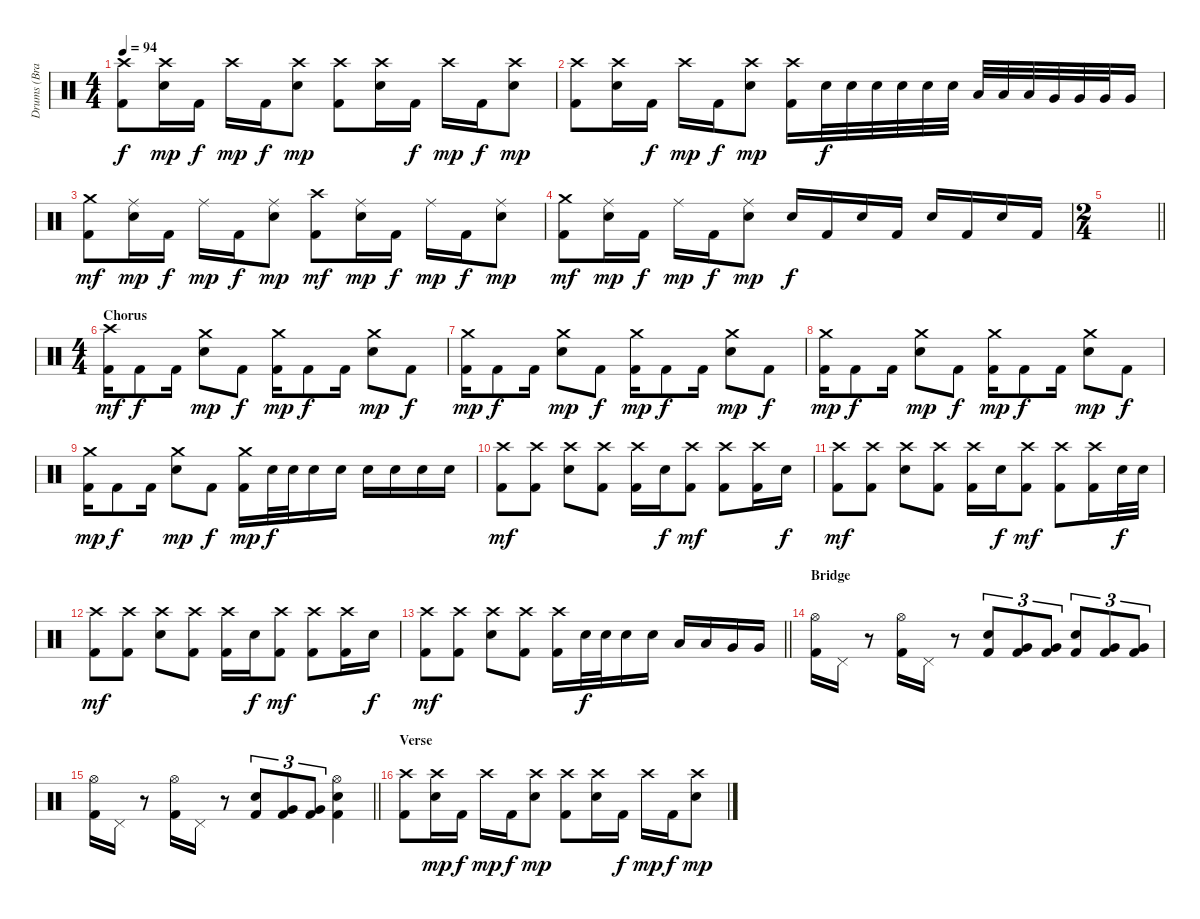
\track ("Drums (Brandon Saller)" "Drums (Bra") {instrument percussion}
\staff {score}
\articulation defaults
\ts (4 4)
\tempo 94
\clef neutral
\ks c
("Crash high (hit)" "Kick (hit) 2").8{dy f} ("Crash high (hit)" "Electric Snare (hit)").16{dy mp} "Kick (hit) 2".16{dy f} "Crash high (hit)".16{dy mp} "Kick (hit) 2".16{dy f} ("Crash high (hit)" "Electric Snare (hit)").8{dy mp} ("Crash high (hit)" "Kick (hit) 2").8 ("Crash high (hit)" "Electric Snare (hit)").16 "Kick (hit) 2".16{dy f} "Crash high (hit)".16{dy mp} "Kick (hit) 2".16{dy f} ("Crash high (hit)" "Electric Snare (hit)").8{dy mp} |
("Crash high (hit)" "Kick (hit) 2").8 ("Crash high (hit)" "Electric Snare (hit)").16 "Kick (hit) 2".16{dy f} "Crash high (hit)".16{dy mp} "Kick (hit) 2".16{dy f} ("Crash high (hit)" "Electric Snare (hit)").8{dy mp} ("Crash high (hit)" "Kick (hit) 2").16 "Electric Snare (hit)".32{dy f} "Electric Snare (hit)".32 "Electric Snare (hit)".32 "Electric Snare (hit)".32 "Electric Snare (hit)".32 "Electric Snare (hit)".32 "Low Tom (hit)".32 "Low Tom (hit)".32 "Low Tom (hit)".32 "Very Low Tom (hit)".32 "Very Low Tom (hit)".32 "Very Low Tom (hit)".32 "Very Low Tom (hit)".16 |
("Crash medium (hit)" "Kick (hit) 2").8{dy mf} ("Ride (middle)" "Electric Snare (hit)").16{dy mp} "Kick (hit) 2".16{dy f} "Ride (middle)".16{dy mp} "Kick (hit) 2".16{dy f} ("Ride (middle)" "Electric Snare (hit)").8{dy mp} ("Crash high (hit)" "Kick (hit) 2").8{dy mf} ("Ride (middle)" "Electric Snare (hit)").16{dy mp} "Kick (hit) 2".16{dy f} "Ride (middle)".16{dy mp} "Kick (hit) 2".16{dy f} ("Ride (middle)" "Electric Snare (hit)").8{dy mp} |
("Crash medium (hit)" "Kick (hit) 2").8{dy mf} ("Ride (middle)" "Electric Snare (hit)").16{dy mp} "Kick (hit) 2".16{dy f} "Ride (middle)".16{dy mp} "Kick (hit) 2".16{dy f} ("Ride (middle)" "Electric Snare (hit)").8{dy mp} "Electric Snare (hit)".16{dy f} "Kick (hit) 2".16 "Electric Snare (hit)".16 "Kick (hit) 2".16 "Electric Snare (hit)".16 "Kick (hit) 2".16 "Electric Snare (hit)".16 "Kick (hit) 2".16 |
\ts (2 4)
\barLineRight lightlight
|
\ts (4 4)
\section ("" "Chorus")
("Crash high (hit)" "Kick (hit) 2").16{dy mf} "Kick (hit) 2".8{dy f} "Kick (hit) 2".16 ("Crash medium (hit)" "Electric Snare (hit)").8{dy mp} "Kick (hit) 2".8{dy f} ("Crash medium (hit)" "Kick (hit) 2").16{dy mp} "Kick (hit) 2".8{dy f} "Kick (hit) 2".16 ("Crash medium (hit)" "Electric Snare (hit)").8{dy mp} "Kick (hit) 2".8{dy f} |
("Crash medium (hit)" "Kick (hit) 2").16{dy mp} "Kick (hit) 2".8{dy f} "Kick (hit) 2".16 ("Crash medium (hit)" "Electric Snare (hit)").8{dy mp} "Kick (hit) 2".8{dy f} ("Crash medium (hit)" "Kick (hit) 2").16{dy mp} "Kick (hit) 2".8{dy f} "Kick (hit) 2".16 ("Crash medium (hit)" "Electric Snare (hit)").8{dy mp} "Kick (hit) 2".8{dy f} |
("Crash medium (hit)" "Kick (hit) 2").16{dy mp} "Kick (hit) 2".8{dy f} "Kick (hit) 2".16 ("Crash medium (hit)" "Electric Snare (hit)").8{dy mp} "Kick (hit) 2".8{dy f} ("Crash medium (hit)" "Kick (hit) 2").16{dy mp} "Kick (hit) 2".8{dy f} "Kick (hit) 2".16 ("Crash medium (hit)" "Electric Snare (hit)").8{dy mp} "Kick (hit) 2".8{dy f} |
("Crash medium (hit)" "Kick (hit) 2").16{dy mp} "Kick (hit) 2".8{dy f} "Kick (hit) 2".16 ("Crash medium (hit)" "Electric Snare (hit)").8{dy mp} "Kick (hit) 2".8{dy f} ("Crash medium (hit)" "Kick (hit) 2").16{dy mp} "Electric Snare (hit)".32{dy f} "Electric Snare (hit)".32 "Electric Snare (hit)".16 "Electric Snare (hit)".16 "Electric Snare (hit)".16 "Electric Snare (hit)".16 "Electric Snare (hit)".16 "Electric Snare (hit)".16 |
("Crash high (hit)" "Kick (hit) 2").8{dy mf} ("Crash high (hit)" "Kick (hit) 2").8 ("Crash high (hit)" "Electric Snare (hit)").8 ("Crash high (hit)" "Kick (hit) 2").8 ("Crash high (hit)" "Kick (hit) 2").16 "Electric Snare (hit)".16{dy f} ("Crash high (hit)" "Kick (hit) 2").8{dy mf} ("Crash high (hit)" "Kick (hit) 2").8 ("Crash high (hit)" "Kick (hit) 2").16 "Electric Snare (hit)".16{dy f} |
("Crash high (hit)" "Kick (hit) 2").8{dy mf} ("Crash high (hit)" "Kick (hit) 2").8 ("Crash high (hit)" "Electric Snare (hit)").8 ("Crash high (hit)" "Kick (hit) 2").8 ("Crash high (hit)" "Kick (hit) 2").16 "Electric Snare (hit)".16{dy f} ("Crash high (hit)" "Kick (hit) 2").8{dy mf} ("Crash high (hit)" "Kick (hit) 2").8 ("Crash high (hit)" "Kick (hit) 2").16 "Electric Snare (hit)".32{dy f} "Electric Snare (hit)".32 |
("Crash high (hit)" "Kick (hit) 2").8{dy mf} ("Crash high (hit)" "Kick (hit) 2").8 ("Crash high (hit)" "Electric Snare (hit)").8 ("Crash high (hit)" "Kick (hit) 2").8 ("Crash high (hit)" "Kick (hit) 2").16 "Electric Snare (hit)".16{dy f} ("Crash high (hit)" "Kick (hit) 2").8{dy mf} ("Crash high (hit)" "Kick (hit) 2").8 ("Crash high (hit)" "Kick (hit) 2").16 "Electric Snare (hit)".16{dy f} |
\barLineRight lightlight
("Crash high (hit)" "Kick (hit) 2").8{dy mf} ("Crash high (hit)" "Kick (hit) 2").8 ("Crash high (hit)" "Electric Snare (hit)").8 ("Crash high (hit)" "Kick (hit) 2").8 ("Crash high (hit)" "Kick (hit) 2").16 "Electric Snare (hit)".32{dy f} "Electric Snare (hit)".32 "Electric Snare (hit)".16 "Electric Snare (hit)".16 "Low Tom (hit)".16 "Low Tom (hit)".16 "Very Low Tom (hit)".16 "Very Low Tom (hit)".16 |
\section ("" "Bridge")
("Hi-Hat (open)" "Kick (hit) 2").16 "Pedal Hi-Hat (hit)".16 r.8 ("Hi-Hat (open)" "Kick (hit) 2").16 "Pedal Hi-Hat (hit)".16 r.8 ("Electric Snare (hit)" "Kick (hit) 2").8{tu (3 2)} ("Very Low Tom (hit)" "Kick (hit) 2").8{tu (3 2)} ("Very Low Tom (hit)" "Kick (hit) 2").8{tu (3 2)} ("Electric Snare (hit)" "Kick (hit) 2").8{tu (3 2)} ("Very Low Tom (hit)" "Kick (hit) 2").8{tu (3 2)} ("Very Low Tom (hit)" "Kick (hit) 2").8{tu (3 2)} |
\barLineRight lightlight
("Hi-Hat (open)" "Kick (hit) 2").16 "Pedal Hi-Hat (hit)".16 r.8 ("Hi-Hat (open)" "Kick (hit) 2").16 "Pedal Hi-Hat (hit)".16 r.8 ("Electric Snare (hit)" "Kick (hit) 2").8{tu (3 2)} ("Very Low Tom (hit)" "Kick (hit) 2").8{tu (3 2)} ("Very Low Tom (hit)" "Kick (hit) 2").8{tu (3 2)} ("Hi-Hat (open)" "Electric Snare (hit)" "Kick (hit) 2").4 |
\section ("" "Verse")
("Crash high (hit)" "Kick (hit) 2").8 ("Crash high (hit)" "Electric Snare (hit)").16{dy mp} "Kick (hit) 2".16{dy f} "Crash high (hit)".16{dy mp} "Kick (hit) 2".16{dy f} ("Crash high (hit)" "Electric Snare (hit)").8{dy mp} ("Crash high (hit)" "Kick (hit) 2").8 ("Crash high (hit)" "Electric Snare (hit)").16 "Kick (hit) 2".16{dy f} "Crash high (hit)".16{dy mp} "Kick (hit) 2".16{dy f} ("Crash high (hit)" "Electric Snare (hit)").8{dy mp}
